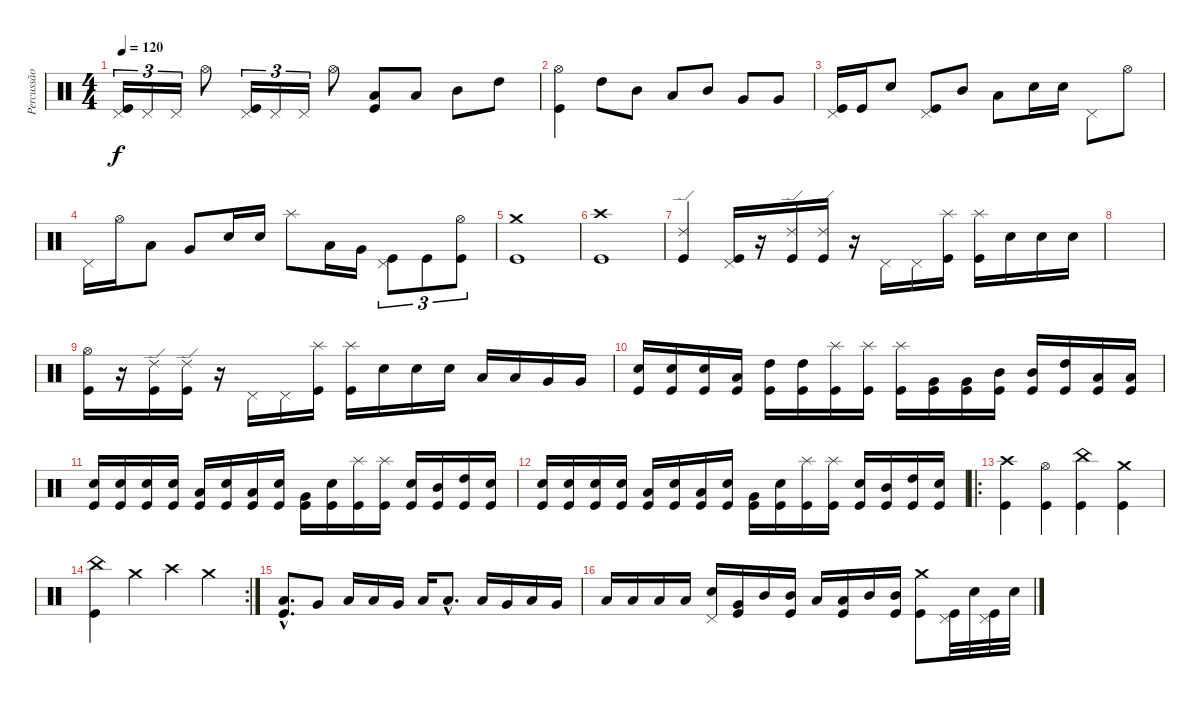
\track ("Percussão" "Percussão") {instrument percussion}
\staff {score}
\articulation defaults
\ts (4 4)
\tempo 120
\clef neutral
\ks c
("Kick (hit)" "Pedal Hi-Hat (hit)").16{tu (3 2) dy f} "Pedal Hi-Hat (hit)".16{tu (3 2)} "Pedal Hi-Hat (hit)".16{tu (3 2)} "Hi-Hat (open)".8 ("Kick (hit)" "Pedal Hi-Hat (hit)").16{tu (3 2)} "Pedal Hi-Hat (hit)".16{tu (3 2)} "Pedal Hi-Hat (hit)".16{tu (3 2)} "Hi-Hat (open)".8 ("Kick (hit)" "Low Floor Tom (hit)").8 "Low Tom (hit)".8 "Mid Tom (hit)".8 "High Tom (hit)".8 |
("Kick (hit)" "Hi-Hat (open)").4 "High Tom (hit)".8 "Mid Tom (hit)".8 "Low Tom (hit)".8 "Mid Tom (hit)".8 "Very Low Tom (hit)".8 "Very Low Tom (hit)".8 |
("Kick (hit)" "Pedal Hi-Hat (hit)").16 "Kick (hit)".16 "Snare (hit) 2".8 ("Kick (hit)" "Pedal Hi-Hat (hit)").8 "Mid Tom (hit)".8 "Low Tom (hit)".8 "Snare (hit) 2".16 "Snare (hit) 2".16 "Pedal Hi-Hat (hit)".8 "Hi-Hat (open)".8 |
"Pedal Hi-Hat (hit)".16 "Hi-Hat (open)".16 "Low Tom (hit)".8 "Very Low Tom (hit)".8 "Snare (hit) 2".16 "Snare (hit) 2".16 "Splash (hit)".8 "Low Tom (hit)".16 "Very Low Tom (hit)".16 ("Kick (hit)" "Pedal Hi-Hat (hit)").8{tu (3 2)} "Kick (hit)".8{tu (3 2)} ("Kick (hit)" "Hi-Hat (open)").8{tu (3 2)} |
("Kick (hit)" "Crash medium (hit)").1 |
("Kick (hit)" "Crash high (hit)").1 |
("Kick (hit)" "Ride (edge) 2").4 ("Kick (hit)" "Pedal Hi-Hat (hit)").16 r.16 ("Kick (hit)" "Ride (edge) 2").16 ("Kick (hit)" "Ride (edge) 2").16 r.16 "Pedal Hi-Hat (hit)".16 "Pedal Hi-Hat (hit)".16 ("Kick (hit)" "Splash (hit)").16 ("Kick (hit)" "Splash (hit)").16 "Snare (hit) 2".16 "Snare (hit) 2".16 "Snare (hit) 2".16 |
|
("Kick (hit)" "Hi-Hat (open)").16 r.16 ("Kick (hit)" "Ride (edge) 2").16 ("Kick (hit)" "Ride (edge) 2").16 r.16 "Pedal Hi-Hat (hit)".16 "Pedal Hi-Hat (hit)".16 ("Kick (hit)" "Splash (hit)").16 ("Kick (hit)" "Splash (hit)").16 "Snare (hit) 2".16 "Snare (hit) 2".16 "Snare (hit) 2".16 "Low Floor Tom (hit)".16 "Low Floor Tom (hit)".16 "Very Low Tom (hit)".16 "Very Low Tom (hit)".16 |
("Kick (hit)" "Snare (hit) 2").16 ("Kick (hit)" "Snare (hit) 2").16 ("Kick (hit)" "Snare (hit) 2").16 ("Kick (hit)" "Low Floor Tom (hit)").16 ("Kick (hit)" "High Tom (hit)").16 ("Kick (hit)" "High Tom (hit)").16 ("Kick (hit)" "Splash (hit)").16 ("Kick (hit)" "Splash (hit)").16 ("Kick (hit)" "Splash (hit)").16 ("Kick (hit)" "Very Low Tom (hit)").16 ("Kick (hit)" "Very Low Tom (hit)").16 ("Kick (hit)" "Mid Tom (hit)").16 ("Kick (hit)" "Mid Tom (hit)").16 ("Kick (hit)" "High Tom (hit)").16 ("Kick (hit)" "Low Floor Tom (hit)").16 ("Kick (hit)" "Low Floor Tom (hit)").16 |
("Kick (hit)" "Snare (hit) 2").16 ("Kick (hit)" "Snare (hit) 2").16 ("Kick (hit)" "Snare (hit) 2").16 ("Kick (hit)" "Snare (hit) 2").16 ("Kick (hit)" "Low Floor Tom (hit)").16 ("Kick (hit)" "Snare (hit) 2").16 ("Kick (hit)" "Low Tom (hit)").16 ("Kick (hit)" "Snare (hit) 2").16 ("Kick (hit)" "Very Low Tom (hit)").16 ("Kick (hit)" "Snare (hit) 2").16 ("Kick (hit)" "Splash (hit)").16 ("Kick (hit)" "Splash (hit)").16 ("Kick (hit)" "Snare (hit) 2").16 ("Kick (hit)" "Mid Tom (hit)").16 ("Kick (hit)" "High Tom (hit)").16 ("Kick (hit)" "Snare (hit) 2").16 |
("Kick (hit)" "Snare (hit) 2").16 ("Kick (hit)" "Snare (hit) 2").16 ("Kick (hit)" "Snare (hit) 2").16 ("Kick (hit)" "Snare (hit) 2").16 ("Kick (hit)" "Low Floor Tom (hit)").16 ("Kick (hit)" "Snare (hit) 2").16 ("Kick (hit)" "Low Tom (hit)").16 ("Kick (hit)" "Snare (hit) 2").16 ("Kick (hit)" "Very Low Tom (hit)").16 ("Kick (hit)" "Snare (hit) 2").16 ("Kick (hit)" "Splash (hit)").16 ("Kick (hit)" "Splash (hit)").16 ("Kick (hit)" "Snare (hit) 2").16 ("Kick (hit)" "Mid Tom (hit)").16 ("Kick (hit)" "High Tom (hit)").16 ("Kick (hit)" "Snare (hit) 2").16 |
\ro
("Kick (hit)" "Crash high (hit)").4 ("Kick (hit)" "Hi-Hat (open)").4 ("Kick (hit)" "China (hit)").4 ("Kick (hit)" "Crash medium (hit)").4 |
\rc 2
("Kick (hit)" "China (hit)").4 "Crash medium (hit)".4 "Crash high (hit)".4 "Crash medium (hit)".4 |
("Kick (hit)"{hac} "Low Floor Tom (hit)"{hac}).8{d} "Very Low Tom (hit)".8 "Low Floor Tom (hit)".16 "Low Floor Tom (hit)".16 "Very Low Tom (hit)".16 "Low Tom (hit)".16 "Low Floor Tom (hit)"{hac}.8{d} "Low Tom (hit)".16 "Very Low Tom (hit)".16 "Low Tom (hit)".16 "Very Low Tom (hit)".16 |
"Low Floor Tom (hit)".16 "Low Tom (hit)".16 "Low Floor Tom (hit)".16 "Low Tom (hit)".16 ("Snare (hit) 2" "Pedal Hi-Hat (hit)").16 ("Kick (hit)" "Very Low Tom (hit)").16 "Mid Tom (hit)".16 ("Kick (hit)" "Mid Tom (hit)").16 "Low Tom (hit)".16 ("Kick (hit)" "Low Tom (hit)").16 "Mid Tom (hit)".16 ("Kick (hit)" "Mid Tom (hit)").16 ("Kick (hit)" "Crash medium (hit)").8 ("Kick (hit)" "Pedal Hi-Hat (hit)").32 "Snare (hit) 2".32 ("Kick (hit)" "Pedal Hi-Hat (hit)").32 "Snare (hit) 2".32
